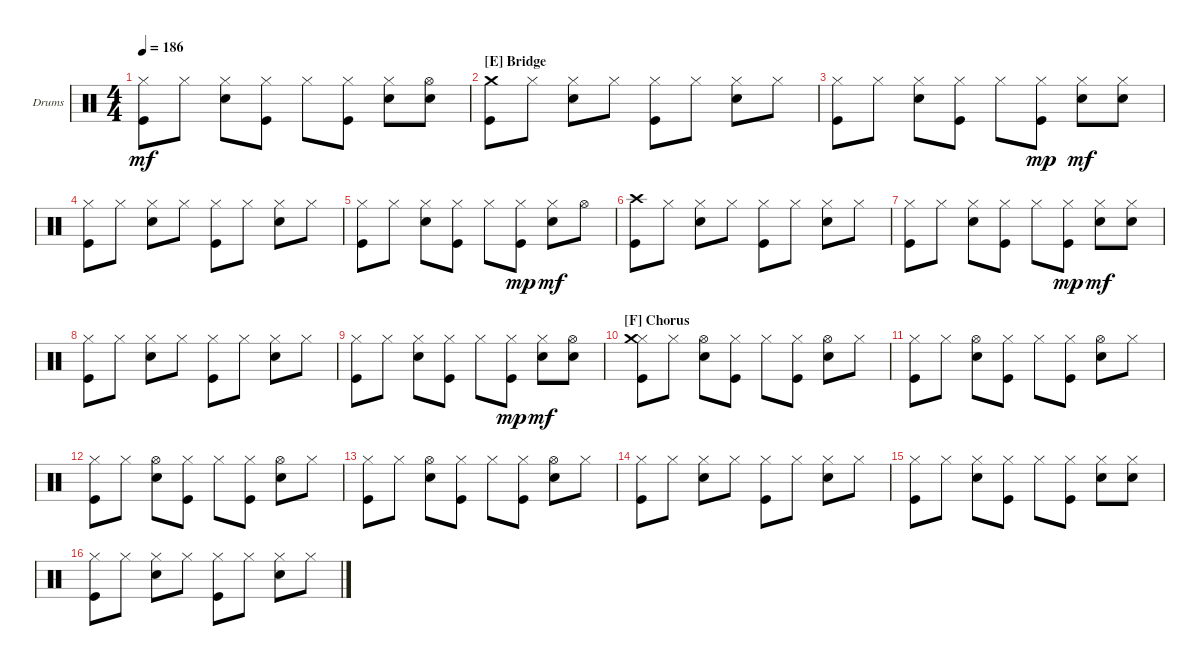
\bracketExtendMode groupsimilarinstruments
\firstSystemTrackNameOrientation horizontal
\otherSystemsTrackNameOrientation horizontal
\track ("Drumkit" "Drums") {instrument percussion}
\staff {score}
\articulation defaults
\ts (4 4)
\tempo 186
\clef neutral
\ks c
("Hi-Hat (closed)" "Kick (hit)").8{dy mf} "Hi-Hat (closed)".8 ("Hi-Hat (closed)" "Snare (hit) 2").8 ("Hi-Hat (closed)" "Kick (hit)").8 "Hi-Hat (closed)".8 ("Hi-Hat (closed)" "Kick (hit)").8 ("Hi-Hat (closed)" "Snare (hit) 2").8 ("Hi-Hat (open)" "Snare (hit) 2").8 |
\section ("E" "Bridge")
("Crash medium (hit)" "Kick (hit)").8 "Hi-Hat (closed)".8 ("Hi-Hat (closed)" "Snare (hit) 2").8 "Hi-Hat (closed)".8 ("Hi-Hat (closed)" "Kick (hit)").8 "Hi-Hat (closed)".8 ("Hi-Hat (closed)" "Snare (hit) 2").8 "Hi-Hat (closed)".8 |
("Hi-Hat (closed)" "Kick (hit)").8 "Hi-Hat (closed)".8 ("Hi-Hat (closed)" "Snare (hit) 2").8 ("Hi-Hat (closed)" "Kick (hit)").8 "Hi-Hat (closed)".8 ("Hi-Hat (closed)" "Kick (hit)").8{dy mp} ("Hi-Hat (closed)" "Snare (hit) 2").8{dy mf} ("Hi-Hat (closed)" "Snare (hit) 2").8 |
("Hi-Hat (closed)" "Kick (hit)").8 "Hi-Hat (closed)".8 ("Hi-Hat (closed)" "Snare (hit) 2").8 "Hi-Hat (closed)".8 ("Hi-Hat (closed)" "Kick (hit)").8 "Hi-Hat (closed)".8 ("Hi-Hat (closed)" "Snare (hit) 2").8 "Hi-Hat (closed)".8 |
("Hi-Hat (closed)" "Kick (hit)").8 "Hi-Hat (closed)".8 ("Hi-Hat (closed)" "Snare (hit) 2").8 ("Hi-Hat (closed)" "Kick (hit)").8 "Hi-Hat (closed)".8 ("Hi-Hat (closed)" "Kick (hit)").8{dy mp} ("Hi-Hat (closed)" "Snare (hit) 2").8{dy mf} "Hi-Hat (open)".8 |
("Crash high (hit)" "Kick (hit)").8 "Hi-Hat (closed)".8 ("Hi-Hat (closed)" "Snare (hit) 2").8 "Hi-Hat (closed)".8 ("Hi-Hat (closed)" "Kick (hit)").8 "Hi-Hat (closed)".8 ("Hi-Hat (closed)" "Snare (hit) 2").8 "Hi-Hat (closed)".8 |
("Hi-Hat (closed)" "Kick (hit)").8 "Hi-Hat (closed)".8 ("Hi-Hat (closed)" "Snare (hit) 2").8 ("Hi-Hat (closed)" "Kick (hit)").8 "Hi-Hat (closed)".8 ("Hi-Hat (closed)" "Kick (hit)").8{dy mp} ("Hi-Hat (closed)" "Snare (hit) 2").8{dy mf} ("Hi-Hat (closed)" "Snare (hit) 2").8 |
("Hi-Hat (closed)" "Kick (hit)").8 "Hi-Hat (closed)".8 ("Hi-Hat (closed)" "Snare (hit) 2").8 "Hi-Hat (closed)".8 ("Hi-Hat (closed)" "Kick (hit)").8 "Hi-Hat (closed)".8 ("Hi-Hat (closed)" "Snare (hit) 2").8 "Hi-Hat (closed)".8 |
("Hi-Hat (closed)" "Kick (hit)").8 "Hi-Hat (closed)".8 ("Hi-Hat (closed)" "Snare (hit) 2").8 ("Hi-Hat (closed)" "Kick (hit)").8 "Hi-Hat (closed)".8 ("Hi-Hat (closed)" "Kick (hit)").8{dy mp} ("Hi-Hat (closed)" "Snare (hit) 2").8{dy mf} ("Hi-Hat (open)" "Snare (hit) 2").8 |
\section ("F" "Chorus")
("Hi-Hat (closed)" "Crash medium (hit)" "Kick (hit)").8 "Hi-Hat (closed)".8 ("Hi-Hat (open)" "Snare (hit) 2").8 ("Hi-Hat (closed)" "Kick (hit)").8 "Hi-Hat (closed)".8 ("Hi-Hat (closed)" "Kick (hit)").8 ("Hi-Hat (open)" "Snare (hit) 2").8 "Hi-Hat (closed)".8 |
("Hi-Hat (closed)" "Kick (hit)").8 "Hi-Hat (closed)".8 ("Hi-Hat (open)" "Snare (hit) 2").8 ("Hi-Hat (closed)" "Kick (hit)").8 "Hi-Hat (closed)".8 ("Hi-Hat (closed)" "Kick (hit)").8 ("Hi-Hat (open)" "Snare (hit) 2").8 "Hi-Hat (closed)".8 |
("Hi-Hat (closed)" "Kick (hit)").8 "Hi-Hat (closed)".8 ("Hi-Hat (open)" "Snare (hit) 2").8 ("Hi-Hat (closed)" "Kick (hit)").8 "Hi-Hat (closed)".8 ("Hi-Hat (closed)" "Kick (hit)").8 ("Hi-Hat (open)" "Snare (hit) 2").8 "Hi-Hat (closed)".8 |
("Hi-Hat (closed)" "Kick (hit)").8 "Hi-Hat (closed)".8 ("Hi-Hat (open)" "Snare (hit) 2").8 ("Hi-Hat (closed)" "Kick (hit)").8 "Hi-Hat (closed)".8 ("Hi-Hat (closed)" "Kick (hit)").8 ("Hi-Hat (open)" "Snare (hit) 2").8 "Hi-Hat (closed)".8 |
("Hi-Hat (closed)" "Kick (hit)").8 "Hi-Hat (closed)".8 ("Hi-Hat (closed)" "Snare (hit) 2").8 "Hi-Hat (closed)".8 ("Hi-Hat (closed)" "Kick (hit)").8 "Hi-Hat (closed)".8 ("Hi-Hat (closed)" "Snare (hit) 2").8 "Hi-Hat (closed)".8 |
("Hi-Hat (closed)" "Kick (hit)").8 "Hi-Hat (closed)".8 ("Hi-Hat (closed)" "Snare (hit) 2").8 ("Hi-Hat (closed)" "Kick (hit)").8 "Hi-Hat (closed)".8 ("Hi-Hat (closed)" "Kick (hit)").8 ("Hi-Hat (closed)" "Snare (hit) 2").8 ("Hi-Hat (closed)" "Snare (hit) 2").8 |
("Hi-Hat (closed)" "Kick (hit)").8 "Hi-Hat (closed)".8 ("Hi-Hat (closed)" "Snare (hit) 2").8 "Hi-Hat (closed)".8 ("Hi-Hat (closed)" "Kick (hit)").8 "Hi-Hat (closed)".8 ("Hi-Hat (closed)" "Snare (hit) 2").8 "Hi-Hat (closed)".8
